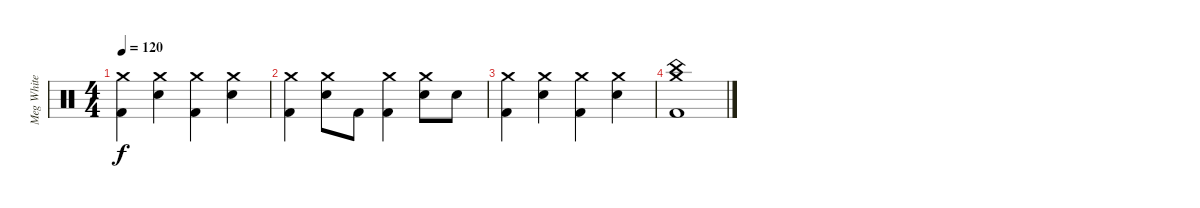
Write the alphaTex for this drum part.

\track ("Meg White" "Meg White") {instrument percussion}
\staff {score}
\articulation defaults
\ts (4 4)
\tempo 120
\clef neutral
\ks c
("Crash medium (hit)" "Kick (hit) 2").4{dy f} ("Crash medium (hit)" "Snare (hit) 2").4 ("Crash medium (hit)" "Kick (hit) 2").4 ("Crash medium (hit)" "Snare (hit) 2").4 |
("Crash medium (hit)" "Kick (hit) 2").4 ("Crash medium (hit)" "Snare (hit) 2").8 "Kick (hit) 2".8 ("Crash medium (hit)" "Kick (hit) 2").4 ("Crash medium (hit)" "Snare (hit) 2").8 "Snare (hit) 2".8 |
("Crash medium (hit)" "Kick (hit) 2").4 ("Crash medium (hit)" "Snare (hit) 2").4 ("Crash medium (hit)" "Kick (hit) 2").4 ("Crash medium (hit)" "Snare (hit) 2").4 |
("Crash medium (hit)" "China (hit)" "Kick (hit) 2").1
